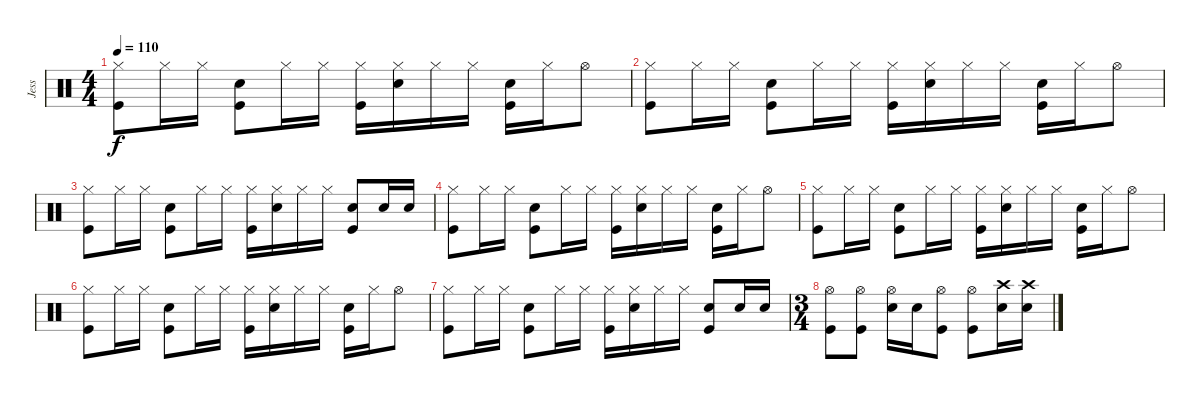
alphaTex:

\track ("Jess" "Jess") {instrument percussion}
\staff {score}
\articulation defaults
\ts (4 4)
\tempo 110
\clef neutral
\ks c
("Hi-Hat (closed)" "Kick (hit)").8{dy f} "Hi-Hat (closed)".16 "Hi-Hat (closed)".16 ("Electric Snare (hit)" "Kick (hit)").8 "Hi-Hat (closed)".16 "Hi-Hat (closed)".16 ("Hi-Hat (closed)" "Kick (hit)").16 ("Hi-Hat (closed)" "Electric Snare (hit)").16 "Hi-Hat (closed)".16 "Hi-Hat (closed)".16 ("Electric Snare (hit)" "Kick (hit)").16 "Hi-Hat (closed)".16 "Hi-Hat (open)".8 |
("Hi-Hat (closed)" "Kick (hit)").8 "Hi-Hat (closed)".16 "Hi-Hat (closed)".16 ("Electric Snare (hit)" "Kick (hit)").8 "Hi-Hat (closed)".16 "Hi-Hat (closed)".16 ("Hi-Hat (closed)" "Kick (hit)").16 ("Hi-Hat (closed)" "Electric Snare (hit)").16 "Hi-Hat (closed)".16 "Hi-Hat (closed)".16 ("Electric Snare (hit)" "Kick (hit)").16 "Hi-Hat (closed)".16 "Hi-Hat (open)".8 |
("Hi-Hat (closed)" "Kick (hit)").8 "Hi-Hat (closed)".16 "Hi-Hat (closed)".16 ("Electric Snare (hit)" "Kick (hit)").8 "Hi-Hat (closed)".16 "Hi-Hat (closed)".16 ("Hi-Hat (closed)" "Kick (hit)").16 ("Hi-Hat (closed)" "Electric Snare (hit)").16 "Hi-Hat (closed)".16 "Hi-Hat (closed)".16 ("Electric Snare (hit)" "Kick (hit)").8 "Electric Snare (hit)".16 "Electric Snare (hit)".16 |
("Hi-Hat (closed)" "Kick (hit)").8 "Hi-Hat (closed)".16 "Hi-Hat (closed)".16 ("Electric Snare (hit)" "Kick (hit)").8 "Hi-Hat (closed)".16 "Hi-Hat (closed)".16 ("Hi-Hat (closed)" "Kick (hit)").16 ("Hi-Hat (closed)" "Electric Snare (hit)").16 "Hi-Hat (closed)".16 "Hi-Hat (closed)".16 ("Electric Snare (hit)" "Kick (hit)").16 "Hi-Hat (closed)".16 "Hi-Hat (open)".8 |
("Hi-Hat (closed)" "Kick (hit)").8 "Hi-Hat (closed)".16 "Hi-Hat (closed)".16 ("Electric Snare (hit)" "Kick (hit)").8 "Hi-Hat (closed)".16 "Hi-Hat (closed)".16 ("Hi-Hat (closed)" "Kick (hit)").16 ("Hi-Hat (closed)" "Electric Snare (hit)").16 "Hi-Hat (closed)".16 "Hi-Hat (closed)".16 ("Electric Snare (hit)" "Kick (hit)").16 "Hi-Hat (closed)".16 "Hi-Hat (open)".8 |
("Hi-Hat (closed)" "Kick (hit)").8 "Hi-Hat (closed)".16 "Hi-Hat (closed)".16 ("Electric Snare (hit)" "Kick (hit)").8 "Hi-Hat (closed)".16 "Hi-Hat (closed)".16 ("Hi-Hat (closed)" "Kick (hit)").16 ("Hi-Hat (closed)" "Electric Snare (hit)").16 "Hi-Hat (closed)".16 "Hi-Hat (closed)".16 ("Electric Snare (hit)" "Kick (hit)").16 "Hi-Hat (closed)".16 "Hi-Hat (open)".8 |
("Hi-Hat (closed)" "Kick (hit)").8 "Hi-Hat (closed)".16 "Hi-Hat (closed)".16 ("Electric Snare (hit)" "Kick (hit)").8 "Hi-Hat (closed)".16 "Hi-Hat (closed)".16 ("Hi-Hat (closed)" "Kick (hit)").16 ("Hi-Hat (closed)" "Electric Snare (hit)").16 "Hi-Hat (closed)".16 "Hi-Hat (closed)".16 ("Electric Snare (hit)" "Kick (hit)").8 "Electric Snare (hit)".16 "Electric Snare (hit)".16 |
\ts (3 4)
("Hi-Hat (open)" "Kick (hit)").8 ("Hi-Hat (open)" "Kick (hit)").8 ("Hi-Hat (open)" "Electric Snare (hit)").16 "Electric Snare (hit)".16 ("Hi-Hat (open)" "Kick (hit)").8 ("Hi-Hat (open)" "Kick (hit)").8 ("Crash high (hit)" "Electric Snare (hit)").16 ("Crash high (hit)" "Electric Snare (hit)").16
